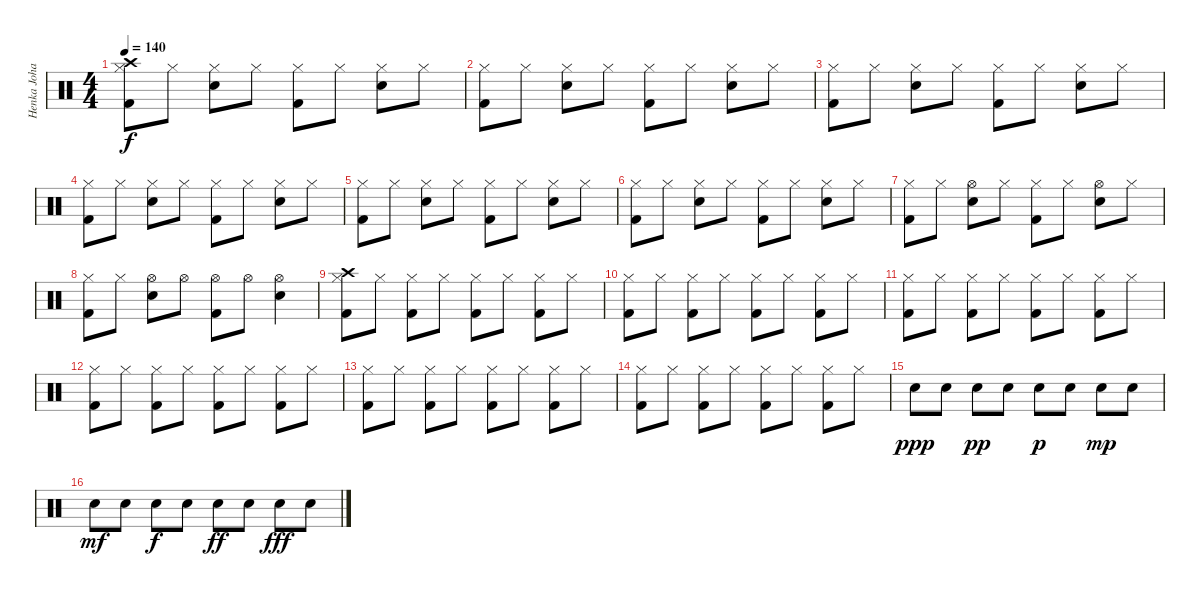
\track ("Henka Johannson " "Henka Joha") {instrument percussion}
\staff {score}
\articulation defaults
\ts (4 4)
\tempo 140
\clef neutral
\ks c
("Crash high (hit)" "Hi-Hat (closed)" "Kick (hit) 2").8{dy f} "Hi-Hat (closed)".8 ("Hi-Hat (closed)" "Electric Snare (hit)").8 "Hi-Hat (closed)".8 ("Hi-Hat (closed)" "Kick (hit) 2").8 "Hi-Hat (closed)".8 ("Hi-Hat (closed)" "Electric Snare (hit)").8 "Hi-Hat (closed)".8 |
("Hi-Hat (closed)" "Kick (hit) 2").8 "Hi-Hat (closed)".8 ("Hi-Hat (closed)" "Electric Snare (hit)").8 "Hi-Hat (closed)".8 ("Hi-Hat (closed)" "Kick (hit) 2").8 "Hi-Hat (closed)".8 ("Hi-Hat (closed)" "Electric Snare (hit)").8 "Hi-Hat (closed)".8 |
("Hi-Hat (closed)" "Kick (hit) 2").8 "Hi-Hat (closed)".8 ("Hi-Hat (closed)" "Electric Snare (hit)").8 "Hi-Hat (closed)".8 ("Hi-Hat (closed)" "Kick (hit) 2").8 "Hi-Hat (closed)".8 ("Hi-Hat (closed)" "Electric Snare (hit)").8 "Hi-Hat (closed)".8 |
("Hi-Hat (closed)" "Kick (hit) 2").8 "Hi-Hat (closed)".8 ("Hi-Hat (closed)" "Electric Snare (hit)").8 "Hi-Hat (closed)".8 ("Hi-Hat (closed)" "Kick (hit) 2").8 "Hi-Hat (closed)".8 ("Hi-Hat (closed)" "Electric Snare (hit)").8 "Hi-Hat (closed)".8 |
("Hi-Hat (closed)" "Kick (hit) 2").8 "Hi-Hat (closed)".8 ("Hi-Hat (closed)" "Electric Snare (hit)").8 "Hi-Hat (closed)".8 ("Hi-Hat (closed)" "Kick (hit) 2").8 "Hi-Hat (closed)".8 ("Hi-Hat (closed)" "Electric Snare (hit)").8 "Hi-Hat (closed)".8 |
("Hi-Hat (closed)" "Kick (hit) 2").8 "Hi-Hat (closed)".8 ("Hi-Hat (closed)" "Electric Snare (hit)").8 "Hi-Hat (closed)".8 ("Hi-Hat (closed)" "Kick (hit) 2").8 "Hi-Hat (closed)".8 ("Hi-Hat (closed)" "Electric Snare (hit)").8 "Hi-Hat (closed)".8 |
("Hi-Hat (closed)" "Kick (hit) 2").8 "Hi-Hat (closed)".8 ("Hi-Hat (open)" "Electric Snare (hit)").8 "Hi-Hat (closed)".8 ("Hi-Hat (closed)" "Kick (hit) 2").8 "Hi-Hat (closed)".8 ("Hi-Hat (open)" "Electric Snare (hit)").8 "Hi-Hat (closed)".8 |
("Hi-Hat (closed)" "Kick (hit) 2").8 "Hi-Hat (closed)".8 ("Hi-Hat (open)" "Electric Snare (hit)").8 "Hi-Hat (open)".8 ("Hi-Hat (open)" "Kick (hit) 2").8 "Hi-Hat (open)".8 ("Hi-Hat (open)" "Electric Snare (hit)").4 |
("Crash high (hit)" "Hi-Hat (closed)" "Kick (hit) 2").8 "Hi-Hat (closed)".8 ("Hi-Hat (closed)" "Kick (hit) 2").8 "Hi-Hat (closed)".8 ("Hi-Hat (closed)" "Kick (hit) 2").8 "Hi-Hat (closed)".8 ("Hi-Hat (closed)" "Kick (hit) 2").8 "Hi-Hat (closed)".8 |
("Hi-Hat (closed)" "Kick (hit) 2").8 "Hi-Hat (closed)".8 ("Hi-Hat (closed)" "Kick (hit) 2").8 "Hi-Hat (closed)".8 ("Hi-Hat (closed)" "Kick (hit) 2").8 "Hi-Hat (closed)".8 ("Hi-Hat (closed)" "Kick (hit) 2").8 "Hi-Hat (closed)".8 |
("Hi-Hat (closed)" "Kick (hit) 2").8 "Hi-Hat (closed)".8 ("Hi-Hat (closed)" "Kick (hit) 2").8 "Hi-Hat (closed)".8 ("Hi-Hat (closed)" "Kick (hit) 2").8 "Hi-Hat (closed)".8 ("Hi-Hat (closed)" "Kick (hit) 2").8 "Hi-Hat (closed)".8 |
("Hi-Hat (closed)" "Kick (hit) 2").8 "Hi-Hat (closed)".8 ("Hi-Hat (closed)" "Kick (hit) 2").8 "Hi-Hat (closed)".8 ("Hi-Hat (closed)" "Kick (hit) 2").8 "Hi-Hat (closed)".8 ("Hi-Hat (closed)" "Kick (hit) 2").8 "Hi-Hat (closed)".8 |
("Hi-Hat (closed)" "Kick (hit) 2").8 "Hi-Hat (closed)".8 ("Hi-Hat (closed)" "Kick (hit) 2").8 "Hi-Hat (closed)".8 ("Hi-Hat (closed)" "Kick (hit) 2").8 "Hi-Hat (closed)".8 ("Hi-Hat (closed)" "Kick (hit) 2").8 "Hi-Hat (closed)".8 |
("Hi-Hat (closed)" "Kick (hit) 2").8 "Hi-Hat (closed)".8 ("Hi-Hat (closed)" "Kick (hit) 2").8 "Hi-Hat (closed)".8 ("Hi-Hat (closed)" "Kick (hit) 2").8 "Hi-Hat (closed)".8 ("Hi-Hat (closed)" "Kick (hit) 2").8 "Hi-Hat (closed)".8 |
"Electric Snare (hit)".8{dy ppp} "Electric Snare (hit)".8 "Electric Snare (hit)".8{dy pp} "Electric Snare (hit)".8 "Electric Snare (hit)".8{dy p} "Electric Snare (hit)".8 "Electric Snare (hit)".8{dy mp} "Electric Snare (hit)".8 |
"Electric Snare (hit)".8{dy mf} "Electric Snare (hit)".8 "Electric Snare (hit)".8{dy f} "Electric Snare (hit)".8 "Electric Snare (hit)".8{dy ff} "Electric Snare (hit)".8 "Electric Snare (hit)".8{dy fff} "Electric Snare (hit)".8
